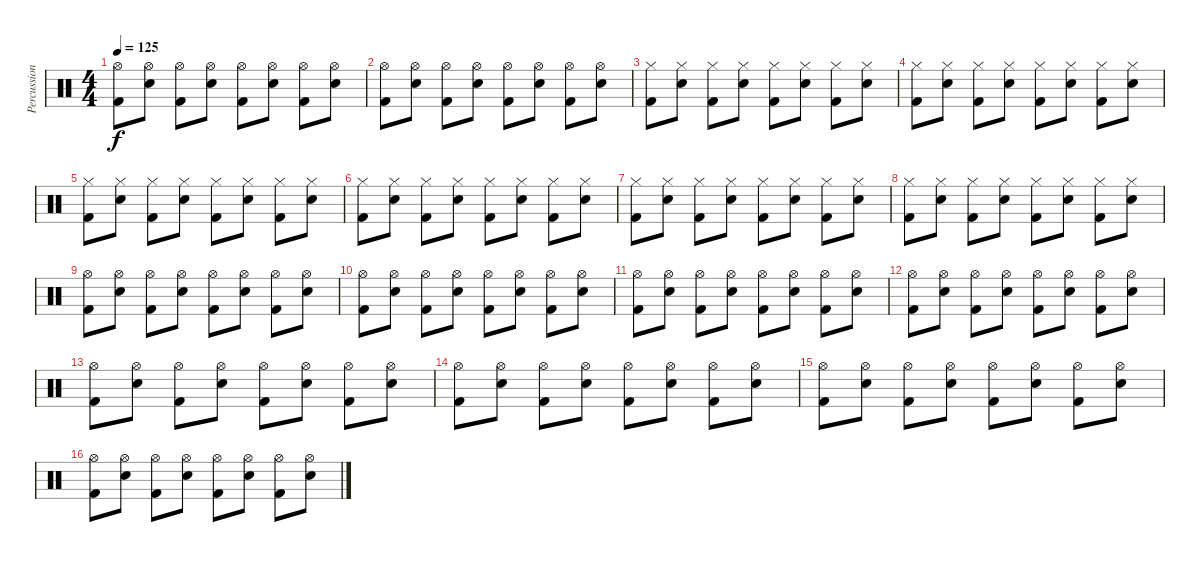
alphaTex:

\track ("Percussion" "Percussion") {instrument percussion}
\staff {score}
\articulation defaults
\ts (4 4)
\tempo 125
\clef neutral
\ks c
("Hi-Hat (open)" "Kick (hit) 2").8{dy f} ("Snare (hit) 2" "Hi-Hat (open)").8 ("Hi-Hat (open)" "Kick (hit) 2").8 ("Snare (hit) 2" "Hi-Hat (open)").8 ("Hi-Hat (open)" "Kick (hit) 2").8 ("Snare (hit) 2" "Hi-Hat (open)").8 ("Hi-Hat (open)" "Kick (hit) 2").8 ("Snare (hit) 2" "Hi-Hat (open)").8 |
("Hi-Hat (open)" "Kick (hit) 2").8 ("Snare (hit) 2" "Hi-Hat (open)").8 ("Hi-Hat (open)" "Kick (hit) 2").8 ("Snare (hit) 2" "Hi-Hat (open)").8 ("Hi-Hat (open)" "Kick (hit) 2").8 ("Snare (hit) 2" "Hi-Hat (open)").8 ("Hi-Hat (open)" "Kick (hit) 2").8 ("Snare (hit) 2" "Hi-Hat (open)").8 |
("Hi-Hat (closed)" "Kick (hit) 2").8 ("Snare (hit) 2" "Hi-Hat (closed)").8 ("Hi-Hat (closed)" "Kick (hit) 2").8 ("Snare (hit) 2" "Hi-Hat (closed)").8 ("Hi-Hat (closed)" "Kick (hit) 2").8 ("Snare (hit) 2" "Hi-Hat (closed)").8 ("Hi-Hat (closed)" "Kick (hit) 2").8 ("Snare (hit) 2" "Hi-Hat (closed)").8 |
("Hi-Hat (closed)" "Kick (hit) 2").8 ("Snare (hit) 2" "Hi-Hat (closed)").8 ("Hi-Hat (closed)" "Kick (hit) 2").8 ("Snare (hit) 2" "Hi-Hat (closed)").8 ("Hi-Hat (closed)" "Kick (hit) 2").8 ("Snare (hit) 2" "Hi-Hat (closed)").8 ("Hi-Hat (closed)" "Kick (hit) 2").8 ("Snare (hit) 2" "Hi-Hat (closed)").8 |
("Hi-Hat (closed)" "Kick (hit) 2").8 ("Snare (hit) 2" "Hi-Hat (closed)").8 ("Hi-Hat (closed)" "Kick (hit) 2").8 ("Snare (hit) 2" "Hi-Hat (closed)").8 ("Hi-Hat (closed)" "Kick (hit) 2").8 ("Snare (hit) 2" "Hi-Hat (closed)").8 ("Hi-Hat (closed)" "Kick (hit) 2").8 ("Snare (hit) 2" "Hi-Hat (closed)").8 |
("Hi-Hat (closed)" "Kick (hit) 2").8 ("Snare (hit) 2" "Hi-Hat (closed)").8 ("Hi-Hat (closed)" "Kick (hit) 2").8 ("Snare (hit) 2" "Hi-Hat (closed)").8 ("Hi-Hat (closed)" "Kick (hit) 2").8 ("Snare (hit) 2" "Hi-Hat (closed)").8 ("Hi-Hat (closed)" "Kick (hit) 2").8 ("Snare (hit) 2" "Hi-Hat (closed)").8 |
("Hi-Hat (closed)" "Kick (hit) 2").8 ("Snare (hit) 2" "Hi-Hat (closed)").8 ("Hi-Hat (closed)" "Kick (hit) 2").8 ("Snare (hit) 2" "Hi-Hat (closed)").8 ("Hi-Hat (closed)" "Kick (hit) 2").8 ("Snare (hit) 2" "Hi-Hat (closed)").8 ("Hi-Hat (closed)" "Kick (hit) 2").8 ("Snare (hit) 2" "Hi-Hat (closed)").8 |
("Hi-Hat (closed)" "Kick (hit) 2").8 ("Snare (hit) 2" "Hi-Hat (closed)").8 ("Hi-Hat (closed)" "Kick (hit) 2").8 ("Snare (hit) 2" "Hi-Hat (closed)").8 ("Hi-Hat (closed)" "Kick (hit) 2").8 ("Snare (hit) 2" "Hi-Hat (closed)").8 ("Hi-Hat (closed)" "Kick (hit) 2").8 ("Snare (hit) 2" "Hi-Hat (closed)").8 |
("Hi-Hat (open)" "Kick (hit) 2").8 ("Snare (hit) 2" "Hi-Hat (open)").8 ("Hi-Hat (open)" "Kick (hit) 2").8 ("Snare (hit) 2" "Hi-Hat (open)").8 ("Hi-Hat (open)" "Kick (hit) 2").8 ("Snare (hit) 2" "Hi-Hat (open)").8 ("Hi-Hat (open)" "Kick (hit) 2").8 ("Snare (hit) 2" "Hi-Hat (open)").8 |
("Hi-Hat (open)" "Kick (hit) 2").8 ("Snare (hit) 2" "Hi-Hat (open)").8 ("Hi-Hat (open)" "Kick (hit) 2").8 ("Snare (hit) 2" "Hi-Hat (open)").8 ("Hi-Hat (open)" "Kick (hit) 2").8 ("Snare (hit) 2" "Hi-Hat (open)").8 ("Hi-Hat (open)" "Kick (hit) 2").8 ("Snare (hit) 2" "Hi-Hat (open)").8 |
("Hi-Hat (open)" "Kick (hit) 2").8 ("Snare (hit) 2" "Hi-Hat (open)").8 ("Hi-Hat (open)" "Kick (hit) 2").8 ("Snare (hit) 2" "Hi-Hat (open)").8 ("Hi-Hat (open)" "Kick (hit) 2").8 ("Snare (hit) 2" "Hi-Hat (open)").8 ("Hi-Hat (open)" "Kick (hit) 2").8 ("Snare (hit) 2" "Hi-Hat (open)").8 |
("Hi-Hat (open)" "Kick (hit) 2").8 ("Snare (hit) 2" "Hi-Hat (open)").8 ("Hi-Hat (open)" "Kick (hit) 2").8 ("Snare (hit) 2" "Hi-Hat (open)").8 ("Hi-Hat (open)" "Kick (hit) 2").8 ("Snare (hit) 2" "Hi-Hat (open)").8 ("Hi-Hat (open)" "Kick (hit) 2").8 ("Snare (hit) 2" "Hi-Hat (open)").8 |
("Hi-Hat (open)" "Kick (hit) 2").8 ("Snare (hit) 2" "Hi-Hat (open)").8 ("Hi-Hat (open)" "Kick (hit) 2").8 ("Snare (hit) 2" "Hi-Hat (open)").8 ("Hi-Hat (open)" "Kick (hit) 2").8 ("Snare (hit) 2" "Hi-Hat (open)").8 ("Hi-Hat (open)" "Kick (hit) 2").8 ("Snare (hit) 2" "Hi-Hat (open)").8 |
("Hi-Hat (open)" "Kick (hit) 2").8 ("Snare (hit) 2" "Hi-Hat (open)").8 ("Hi-Hat (open)" "Kick (hit) 2").8 ("Snare (hit) 2" "Hi-Hat (open)").8 ("Hi-Hat (open)" "Kick (hit) 2").8 ("Snare (hit) 2" "Hi-Hat (open)").8 ("Hi-Hat (open)" "Kick (hit) 2").8 ("Snare (hit) 2" "Hi-Hat (open)").8 |
("Hi-Hat (open)" "Kick (hit) 2").8 ("Snare (hit) 2" "Hi-Hat (open)").8 ("Hi-Hat (open)" "Kick (hit) 2").8 ("Snare (hit) 2" "Hi-Hat (open)").8 ("Hi-Hat (open)" "Kick (hit) 2").8 ("Snare (hit) 2" "Hi-Hat (open)").8 ("Hi-Hat (open)" "Kick (hit) 2").8 ("Snare (hit) 2" "Hi-Hat (open)").8 |
("Hi-Hat (open)" "Kick (hit) 2").8 ("Snare (hit) 2" "Hi-Hat (open)").8 ("Hi-Hat (open)" "Kick (hit) 2").8 ("Snare (hit) 2" "Hi-Hat (open)").8 ("Hi-Hat (open)" "Kick (hit) 2").8 ("Snare (hit) 2" "Hi-Hat (open)").8 ("Hi-Hat (open)" "Kick (hit) 2").8 ("Snare (hit) 2" "Hi-Hat (open)").8
